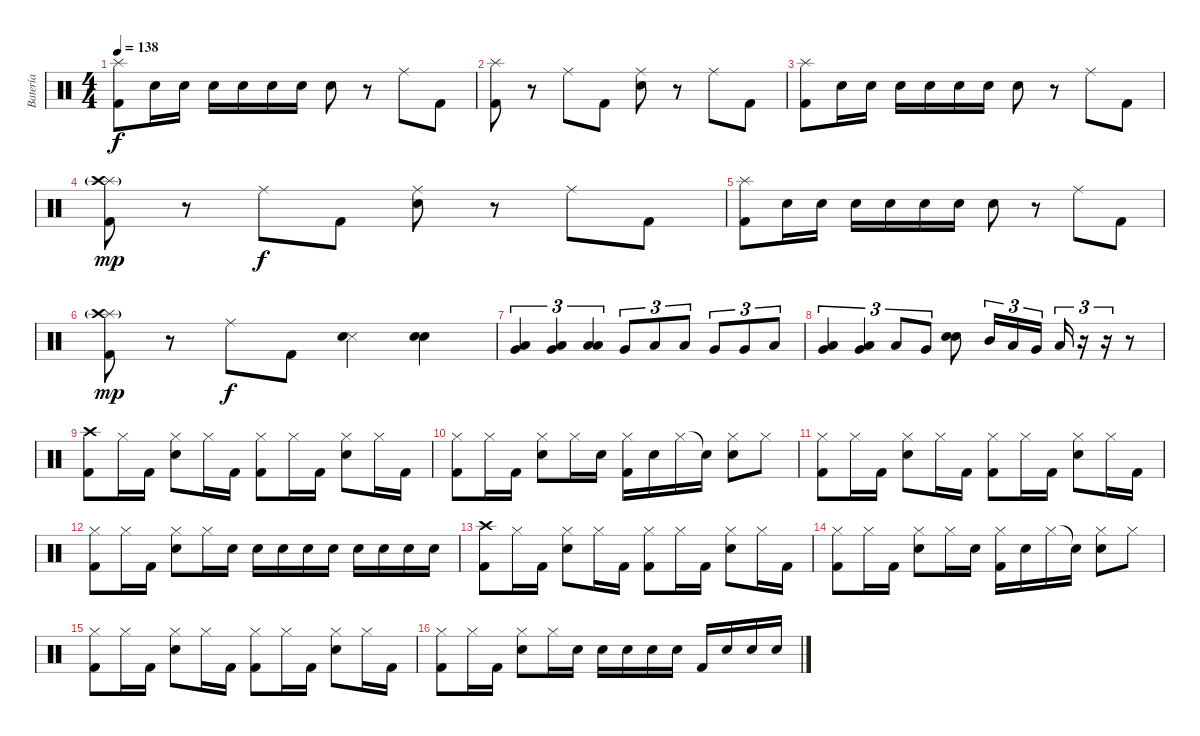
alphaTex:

\track ("Batería" "Batería") {instrument percussion}
\staff {score}
\articulation defaults
\ts (4 4)
\tempo 138
\clef neutral
\ks c
("Splash (hit)" "Kick (hit) 2").8{dy f} "Snare (hit) 2".16 "Snare (hit) 2".16 "Snare (hit) 2".16 "Snare (hit) 2".16 "Snare (hit) 2".16 "Snare (hit) 2".16 "Snare (hit) 2".8 r.8 "Ride (middle)".8 "Kick (hit) 2".8 |
("Splash (hit)" "Kick (hit) 2").8 r.8 "Ride (middle)".8 "Kick (hit) 2".8 ("Ride (middle)" "Snare (hit) 2").8 r.8 "Ride (middle)".8 "Kick (hit) 2".8 |
("Splash (hit)" "Kick (hit) 2").8 "Snare (hit) 2".16 "Snare (hit) 2".16 "Snare (hit) 2".16 "Snare (hit) 2".16 "Snare (hit) 2".16 "Snare (hit) 2".16 "Snare (hit) 2".8 r.8 "Ride (middle)".8 "Kick (hit) 2".8 |
("Splash (hit)" "Crash high (hit)"{g} "Kick (hit) 2").8{dy mp} r.8 "Ride (middle)".8{dy f} "Kick (hit) 2".8 ("Ride (middle)" "Snare (hit) 2").8 r.8 "Ride (middle)".8 "Kick (hit) 2".8 |
("Splash (hit)" "Kick (hit) 2").8 "Snare (hit) 2".16 "Snare (hit) 2".16 "Snare (hit) 2".16 "Snare (hit) 2".16 "Snare (hit) 2".16 "Snare (hit) 2".16 "Snare (hit) 2".8 r.8 "Ride (middle)".8 "Kick (hit) 2".8 |
("Splash (hit)" "Crash high (hit)"{g} "Kick (hit) 2").8{dy mp} r.8 "Ride (middle)".8{dy f} "Kick (hit) 2".8 ("Metronome (hit)" "Snare (hit) 2").4 ("Snare (hit) 2" "Snare (hit) 2").4 |
("Low Tom (hit)" "Very Low Tom (hit)").4{tu (3 2)} ("Low Tom (hit)" "Very Low Tom (hit)").4{tu (3 2)} ("Low Floor Tom (hit)" "Low Floor Tom (hit)").4{tu (3 2)} "Very Low Tom (hit)".8{tu (3 2)} "Low Tom (hit)".8{tu (3 2)} "Low Tom (hit)".8{tu (3 2)} "Very Low Tom (hit)".8{tu (3 2)} "Very Low Tom (hit)".8{tu (3 2)} "Low Floor Tom (hit)".8{tu (3 2)} |
("Very Low Tom (hit)" "Low Floor Tom (hit)").4{tu (3 2)} ("Very Low Tom (hit)" "Low Floor Tom (hit)").4{tu (3 2)} "Low Floor Tom (hit)".8{tu (3 2)} "Very Low Tom (hit)".8{tu (3 2)} ("Snare (hit) 2" "Snare (hit) 2").8 "Mid Tom (hit)".16{tu (3 2)} "Low Tom (hit)".16{tu (3 2)} "Very Low Tom (hit)".16{tu (3 2)} "Low Floor Tom (hit)".16{tu (3 2)} r.16{tu (3 2)} r.16{tu (3 2)} r.8 |
("Crash high (hit)" "Kick (hit) 2").8 "Hi-Hat (closed)".16 "Kick (hit) 2".16 ("Hi-Hat (closed)" "Snare (hit) 2").8 "Hi-Hat (closed)".16 "Kick (hit) 2".16 ("Hi-Hat (closed)" "Kick (hit) 2").8 "Hi-Hat (closed)".16 "Kick (hit) 2".16 ("Hi-Hat (closed)" "Snare (hit) 2").8 "Hi-Hat (closed)".16 "Kick (hit) 2".16 |
("Hi-Hat (closed)" "Kick (hit) 2").8 "Hi-Hat (closed)".16 "Kick (hit) 2".16 ("Hi-Hat (closed)" "Snare (hit) 2").8 "Hi-Hat (closed)".16 "Snare (hit) 2".16 ("Hi-Hat (closed)" "Kick (hit) 2").16 "Snare (hit) 2".16 "Hi-Hat (closed)".16 "Snare (hit)"{t}.16 ("Hi-Hat (closed)" "Snare (hit) 2").8 "Hi-Hat (closed)".8 |
("Hi-Hat (closed)" "Kick (hit) 2").8 "Hi-Hat (closed)".16 "Kick (hit) 2".16 ("Hi-Hat (closed)" "Snare (hit) 2").8 "Hi-Hat (closed)".16 "Kick (hit) 2".16 ("Hi-Hat (closed)" "Kick (hit) 2").8 "Hi-Hat (closed)".16 "Kick (hit) 2".16 ("Hi-Hat (closed)" "Snare (hit) 2").8 "Hi-Hat (closed)".16 "Kick (hit) 2".16 |
("Hi-Hat (closed)" "Kick (hit) 2").8 "Hi-Hat (closed)".16 "Kick (hit) 2".16 ("Hi-Hat (closed)" "Snare (hit) 2").8 "Hi-Hat (closed)".16 "Snare (hit) 2".16 "Snare (hit) 2".16 "Snare (hit) 2".16 "Snare (hit) 2".16 "Snare (hit) 2".16 "Snare (hit) 2".16 "Snare (hit) 2".16 "Snare (hit) 2".16 "Snare (hit) 2".16 |
("Crash high (hit)" "Kick (hit) 2").8 "Hi-Hat (closed)".16 "Kick (hit) 2".16 ("Hi-Hat (closed)" "Snare (hit) 2").8 "Hi-Hat (closed)".16 "Kick (hit) 2".16 ("Hi-Hat (closed)" "Kick (hit) 2").8 "Hi-Hat (closed)".16 "Kick (hit) 2".16 ("Hi-Hat (closed)" "Snare (hit) 2").8 "Hi-Hat (closed)".16 "Kick (hit) 2".16 |
("Hi-Hat (closed)" "Kick (hit) 2").8 "Hi-Hat (closed)".16 "Kick (hit) 2".16 ("Hi-Hat (closed)" "Snare (hit) 2").8 "Hi-Hat (closed)".16 "Snare (hit) 2".16 ("Hi-Hat (closed)" "Kick (hit) 2").16 "Snare (hit) 2".16 "Hi-Hat (closed)".16 "Snare (hit)"{t}.16 ("Hi-Hat (closed)" "Snare (hit) 2").8 "Hi-Hat (closed)".8 |
("Hi-Hat (closed)" "Kick (hit) 2").8 "Hi-Hat (closed)".16 "Kick (hit) 2".16 ("Hi-Hat (closed)" "Snare (hit) 2").8 "Hi-Hat (closed)".16 "Kick (hit) 2".16 ("Hi-Hat (closed)" "Kick (hit) 2").8 "Hi-Hat (closed)".16 "Kick (hit) 2".16 ("Hi-Hat (closed)" "Snare (hit) 2").8 "Hi-Hat (closed)".16 "Kick (hit) 2".16 |
("Hi-Hat (closed)" "Kick (hit) 2").8 "Hi-Hat (closed)".16 "Kick (hit) 2".16 ("Hi-Hat (closed)" "Snare (hit) 2").8 "Hi-Hat (closed)".16 "Snare (hit) 2".16 "Snare (hit) 2".16 "Snare (hit) 2".16 "Snare (hit) 2".16 "Snare (hit) 2".16 "Kick (hit) 2".16 "Snare (hit) 2".16 "Snare (hit) 2".16 "Snare (hit) 2".16
